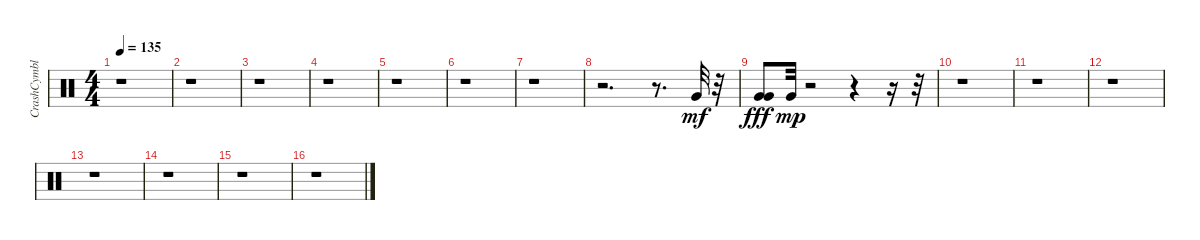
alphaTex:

\track ("CrashCymbl" "CrashCymbl") {instrument percussion}
\staff {score}
\articulation defaults
\ts (4 4)
\tempo 135
\clef neutral
\ks c
r.1{dy mp} |
r.1 |
r.1 |
r.1 |
r.1 |
r.1 |
r.1 |
r.2{d} r.8{d} "Very Low Tom (hit)".32{dy mf} r.32 |
("Very Low Tom (hit)" "Very Low Tom (hit)").8{dy fff} "Very Low Tom (hit)".32{dy mp} r.2 r.4 r.16 r.32 |
r.1 |
r.1 |
r.1 |
r.1 |
r.1 |
r.1 |
r.1
